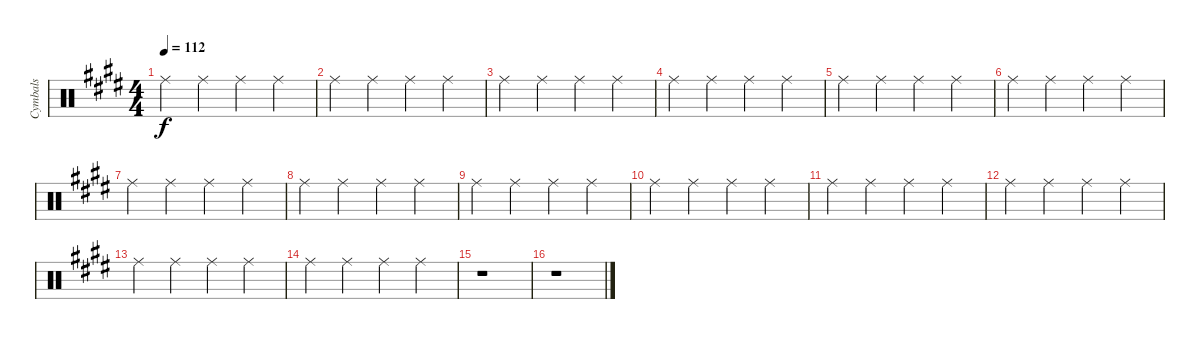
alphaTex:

\track ("Cymbals" "Cymbals") {instrument percussion}
\staff {score}
\articulation defaults
\ts (4 4)
\tempo 112
\clef neutral
\ks e "Ride (middle)".4{dy f} "Ride (middle)".4 "Ride (middle)".4 "Ride (middle)".4
|
"Ride (middle)".4 "Ride (middle)".4 "Ride (middle)".4 "Ride (middle)".4 |
"Ride (middle)".4 "Ride (middle)".4 "Ride (middle)".4 "Ride (middle)".4 |
"Ride (middle)".4 "Ride (middle)".4 "Ride (middle)".4 "Ride (middle)".4 |
"Ride (middle)".4 "Ride (middle)".4 "Ride (middle)".4 "Ride (middle)".4 |
"Ride (middle)".4 "Ride (middle)".4 "Ride (middle)".4 "Ride (middle)".4 |
"Ride (middle)".4 "Ride (middle)".4 "Ride (middle)".4 "Ride (middle)".4 |
"Ride (middle)".4 "Ride (middle)".4 "Ride (middle)".4 "Ride (middle)".4 |
"Ride (middle)".4 "Ride (middle)".4 "Ride (middle)".4 "Ride (middle)".4 |
"Ride (middle)".4 "Ride (middle)".4 "Ride (middle)".4 "Ride (middle)".4 |
"Ride (middle)".4 "Ride (middle)".4 "Ride (middle)".4 "Ride (middle)".4 |
"Ride (middle)".4 "Ride (middle)".4 "Ride (middle)".4 "Ride (middle)".4 |
"Ride (middle)".4 "Ride (middle)".4 "Ride (middle)".4 "Ride (middle)".4 |
"Ride (middle)".4 "Ride (middle)".4 "Ride (middle)".4 "Ride (middle)".4 |
r.1 |
r.1
